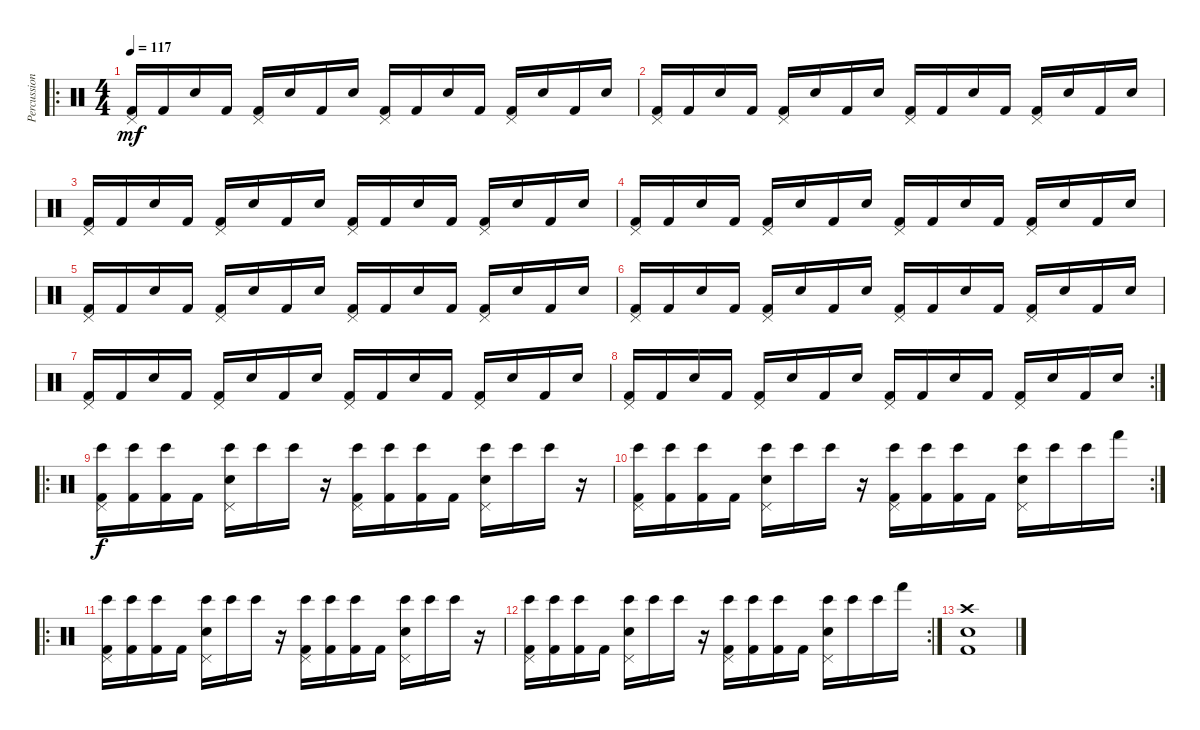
\track ("Percussions" "Percussion") {instrument percussion}
\staff {score}
\articulation defaults
\ro
\ts (4 4)
\tempo 117
\clef neutral
\ks c
("Pedal Hi-Hat (hit)" "Kick (hit) 2").16{dy mf} "Kick (hit) 2".16 "Snare (hit) 2".16 "Kick (hit) 2".16 ("Pedal Hi-Hat (hit)" "Kick (hit) 2").16 "Snare (hit) 2".16 "Kick (hit) 2".16 "Snare (hit) 2".16 ("Pedal Hi-Hat (hit)" "Kick (hit) 2").16 "Kick (hit) 2".16 "Snare (hit) 2".16 "Kick (hit) 2".16 ("Pedal Hi-Hat (hit)" "Kick (hit) 2").16 "Snare (hit) 2".16 "Kick (hit) 2".16 "Snare (hit) 2".16 |
("Pedal Hi-Hat (hit)" "Kick (hit) 2").16 "Kick (hit) 2".16 "Snare (hit) 2".16 "Kick (hit) 2".16 ("Pedal Hi-Hat (hit)" "Kick (hit) 2").16 "Snare (hit) 2".16 "Kick (hit) 2".16 "Snare (hit) 2".16 ("Pedal Hi-Hat (hit)" "Kick (hit) 2").16 "Kick (hit) 2".16 "Snare (hit) 2".16 "Kick (hit) 2".16 ("Pedal Hi-Hat (hit)" "Kick (hit) 2").16 "Snare (hit) 2".16 "Kick (hit) 2".16 "Snare (hit) 2".16 |
("Pedal Hi-Hat (hit)" "Kick (hit) 2").16 "Kick (hit) 2".16 "Snare (hit) 2".16 "Kick (hit) 2".16 ("Pedal Hi-Hat (hit)" "Kick (hit) 2").16 "Snare (hit) 2".16 "Kick (hit) 2".16 "Snare (hit) 2".16 ("Pedal Hi-Hat (hit)" "Kick (hit) 2").16 "Kick (hit) 2".16 "Snare (hit) 2".16 "Kick (hit) 2".16 ("Pedal Hi-Hat (hit)" "Kick (hit) 2").16 "Snare (hit) 2".16 "Kick (hit) 2".16 "Snare (hit) 2".16 |
("Pedal Hi-Hat (hit)" "Kick (hit) 2").16 "Kick (hit) 2".16 "Snare (hit) 2".16 "Kick (hit) 2".16 ("Pedal Hi-Hat (hit)" "Kick (hit) 2").16 "Snare (hit) 2".16 "Kick (hit) 2".16 "Snare (hit) 2".16 ("Pedal Hi-Hat (hit)" "Kick (hit) 2").16 "Kick (hit) 2".16 "Snare (hit) 2".16 "Kick (hit) 2".16 ("Pedal Hi-Hat (hit)" "Kick (hit) 2").16 "Snare (hit) 2".16 "Kick (hit) 2".16 "Snare (hit) 2".16 |
("Pedal Hi-Hat (hit)" "Kick (hit) 2").16 "Kick (hit) 2".16 "Snare (hit) 2".16 "Kick (hit) 2".16 ("Pedal Hi-Hat (hit)" "Kick (hit) 2").16 "Snare (hit) 2".16 "Kick (hit) 2".16 "Snare (hit) 2".16 ("Pedal Hi-Hat (hit)" "Kick (hit) 2").16 "Kick (hit) 2".16 "Snare (hit) 2".16 "Kick (hit) 2".16 ("Pedal Hi-Hat (hit)" "Kick (hit) 2").16 "Snare (hit) 2".16 "Kick (hit) 2".16 "Snare (hit) 2".16 |
("Pedal Hi-Hat (hit)" "Kick (hit) 2").16 "Kick (hit) 2".16 "Snare (hit) 2".16 "Kick (hit) 2".16 ("Pedal Hi-Hat (hit)" "Kick (hit) 2").16 "Snare (hit) 2".16 "Kick (hit) 2".16 "Snare (hit) 2".16 ("Pedal Hi-Hat (hit)" "Kick (hit) 2").16 "Kick (hit) 2".16 "Snare (hit) 2".16 "Kick (hit) 2".16 ("Pedal Hi-Hat (hit)" "Kick (hit) 2").16 "Snare (hit) 2".16 "Kick (hit) 2".16 "Snare (hit) 2".16 |
("Pedal Hi-Hat (hit)" "Kick (hit) 2").16 "Kick (hit) 2".16 "Snare (hit) 2".16 "Kick (hit) 2".16 ("Pedal Hi-Hat (hit)" "Kick (hit) 2").16 "Snare (hit) 2".16 "Kick (hit) 2".16 "Snare (hit) 2".16 ("Pedal Hi-Hat (hit)" "Kick (hit) 2").16 "Kick (hit) 2".16 "Snare (hit) 2".16 "Kick (hit) 2".16 ("Pedal Hi-Hat (hit)" "Kick (hit) 2").16 "Snare (hit) 2".16 "Kick (hit) 2".16 "Snare (hit) 2".16 |
\rc 2
("Pedal Hi-Hat (hit)" "Kick (hit) 2").16 "Kick (hit) 2".16 "Snare (hit) 2".16 "Kick (hit) 2".16 ("Pedal Hi-Hat (hit)" "Kick (hit) 2").16 "Snare (hit) 2".16 "Kick (hit) 2".16 "Snare (hit) 2".16 ("Pedal Hi-Hat (hit)" "Kick (hit) 2").16 "Kick (hit) 2".16 "Snare (hit) 2".16 "Kick (hit) 2".16 ("Pedal Hi-Hat (hit)" "Kick (hit) 2").16 "Snare (hit) 2".16 "Kick (hit) 2".16 "Snare (hit) 2".16 |
\ro
("Pedal Hi-Hat (hit)" "Bongo High (hit)" "Kick (hit) 2").16{dy f} ("Bongo High (hit)" "Kick (hit) 2").16 ("Bongo High (hit)" "Kick (hit) 2").16 "Kick (hit) 2".16 ("Pedal Hi-Hat (hit)" "Bongo High (hit)" "Snare (hit) 2").16 "Bongo High (hit)".16 "Bongo High (hit)".16 r.16 ("Pedal Hi-Hat (hit)" "Bongo High (hit)" "Kick (hit) 2").16 ("Bongo High (hit)" "Kick (hit) 2").16 ("Bongo High (hit)" "Kick (hit) 2").16 "Kick (hit) 2".16 ("Pedal Hi-Hat (hit)" "Bongo High (hit)" "Snare (hit) 2").16 "Bongo High (hit)".16 "Bongo High (hit)".16 r.16 |
\rc 2
("Pedal Hi-Hat (hit)" "Bongo High (hit)" "Kick (hit) 2").16 ("Bongo High (hit)" "Kick (hit) 2").16 ("Bongo High (hit)" "Kick (hit) 2").16 "Kick (hit) 2".16 ("Pedal Hi-Hat (hit)" "Bongo High (hit)" "Snare (hit) 2").16 "Bongo High (hit)".16 "Bongo High (hit)".16 r.16 ("Pedal Hi-Hat (hit)" "Bongo High (hit)" "Kick (hit) 2").16 ("Bongo High (hit)" "Kick (hit) 2").16 ("Bongo High (hit)" "Kick (hit) 2").16 "Kick (hit) 2".16 ("Pedal Hi-Hat (hit)" "Bongo High (hit)" "Snare (hit) 2").16 "Bongo High (hit)".16 "Bongo High (hit)".16 "Hand (hit)".16 |
\ro
("Pedal Hi-Hat (hit)" "Bongo High (hit)" "Kick (hit) 2").16 ("Bongo High (hit)" "Kick (hit) 2").16 ("Bongo High (hit)" "Kick (hit) 2").16 "Kick (hit) 2".16 ("Pedal Hi-Hat (hit)" "Bongo High (hit)" "Snare (hit) 2").16 "Bongo High (hit)".16 "Bongo High (hit)".16 r.16 ("Pedal Hi-Hat (hit)" "Bongo High (hit)" "Kick (hit) 2").16 ("Bongo High (hit)" "Kick (hit) 2").16 ("Bongo High (hit)" "Kick (hit) 2").16 "Kick (hit) 2".16 ("Pedal Hi-Hat (hit)" "Bongo High (hit)" "Snare (hit) 2").16 "Bongo High (hit)".16 "Bongo High (hit)".16 r.16 |
\rc 2
("Pedal Hi-Hat (hit)" "Bongo High (hit)" "Kick (hit) 2").16 ("Bongo High (hit)" "Kick (hit) 2").16 ("Bongo High (hit)" "Kick (hit) 2").16 "Kick (hit) 2".16 ("Pedal Hi-Hat (hit)" "Bongo High (hit)" "Snare (hit) 2").16 "Bongo High (hit)".16 "Bongo High (hit)".16 r.16 ("Pedal Hi-Hat (hit)" "Bongo High (hit)" "Kick (hit) 2").16 ("Bongo High (hit)" "Kick (hit) 2").16 ("Bongo High (hit)" "Kick (hit) 2").16 "Kick (hit) 2".16 ("Pedal Hi-Hat (hit)" "Bongo High (hit)" "Snare (hit) 2").16 "Bongo High (hit)".16 "Bongo High (hit)".16 "Hand (hit)".16 |
("Crash high (hit)" "Snare (hit) 2" "Kick (hit) 2").1
